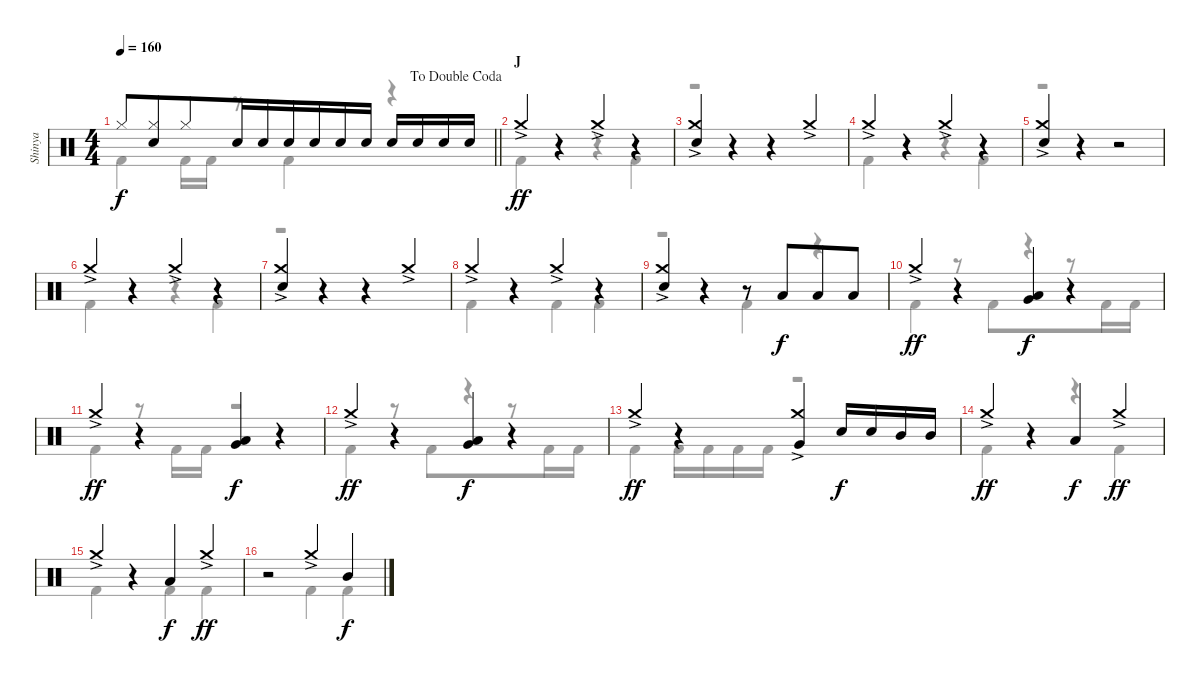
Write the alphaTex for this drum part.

\track ("Shinya" "Shinya") {instrument percussion}
\staff {score}
\articulation defaults
\voice
\ts (4 4)
\jump dadoublecoda
\tempo 160
\clef neutral
\barLineRight lightlight
\ks c "Hi-Hat (closed)".8{dy f beam merge}
("Hi-Hat (closed)" "Electric Snare (hit)").8{beam merge} "Hi-Hat (closed)".8{beam merge} "Electric Snare (hit)".16{beam merge} "Electric Snare (hit)".16{beam merge} "Electric Snare (hit)".16 "Electric Snare (hit)".16{beam merge} "Electric Snare (hit)".16 "Electric Snare (hit)".16 "Electric Snare (hit)".16 "Electric Snare (hit)".16 "Electric Snare (hit)".16 "Electric Snare (hit)".16 |
\section ("" "J")
"Crash medium (hit)"{ac}.4{dy ff beam merge} r.4{beam merge} "Crash medium (hit)"{ac}.4{beam merge} r.4 |
("Crash medium (hit)"{ac} "Electric Snare (hit)").4{beam merge} r.4{beam merge} r.4{beam merge} "Crash medium (hit)"{ac}.4 |
"Crash medium (hit)"{ac}.4{beam merge} r.4{beam merge} "Crash medium (hit)"{ac}.4{beam merge} r.4 |
("Crash medium (hit)"{ac} "Electric Snare (hit)").4{beam merge} r.4{beam merge} r.2 |
"Crash medium (hit)"{ac}.4{beam merge} r.4{beam merge} "Crash medium (hit)"{ac}.4{beam merge} r.4 |
("Crash medium (hit)"{ac} "Electric Snare (hit)").4{beam merge} r.4{beam merge} r.4{beam merge} "Crash medium (hit)"{ac}.4 |
"Crash medium (hit)"{ac}.4{beam merge} r.4{beam merge} "Crash medium (hit)"{ac}.4{beam merge} r.4 |
("Crash medium (hit)"{ac} "Electric Snare (hit)").4{beam merge} r.4{beam merge} r.8 "Low Tom (hit)".8{dy f beam merge} "Low Tom (hit)".8 "Low Tom (hit)".8 |
"Crash medium (hit)"{ac}.4{dy ff beam merge} r.4{beam merge} ("Low Tom (hit)" "Very Low Tom (hit)").4{dy f} r.4 |
"Crash medium (hit)"{ac}.4{dy ff beam merge} r.4{beam merge} ("Low Tom (hit)" "Very Low Tom (hit)").4{dy f} r.4 |
"Crash medium (hit)"{ac}.4{dy ff beam merge} r.4{beam merge} ("Low Tom (hit)" "Very Low Tom (hit)").4{dy f} r.4 |
"Crash medium (hit)"{ac}.4{dy ff beam merge} r.4{beam merge} ("Crash medium (hit)"{ac} "Very Low Tom (hit)").4 "Electric Snare (hit)".16{dy f} "Electric Snare (hit)".16{beam merge} "Mid Tom (hit)".16{beam merge} "Mid Tom (hit)".16 |
"Crash medium (hit)"{ac}.4{dy ff beam merge} r.4{beam merge} "Low Tom (hit)".4{dy f beam merge} "Crash medium (hit)"{ac}.4{dy ff} |
"Crash medium (hit)"{ac}.4{beam merge} r.4{beam merge} "Low Tom (hit)".4{dy f beam merge} "Crash medium (hit)"{ac}.4{dy ff} |
r.2{beam merge} "Crash medium (hit)"{ac}.4{beam merge} "Mid Tom (hit)".4{dy f}
\voice
\clef neutral
\ottava regular
\simile none
\barLineRight lightlight
\ks c "Kick (hit) 2".4{dy f beam merge} "Kick (hit) 2".16{beam merge} "Kick (hit) 2".16{beam merge}
r.8{beam merge} "Kick (hit) 2".4 r.4 |
"Kick (hit) 2".4{beam merge} r.4{beam merge} r.4{beam merge} "Kick (hit) 2".4 |
r.1 |
"Kick (hit) 2".4{beam merge} r.4{beam merge} r.4{beam merge} "Kick (hit) 2".4 |
r.1 |
"Kick (hit) 2".4{beam merge} r.4{beam merge} r.4{beam merge} "Kick (hit) 2".4 |
r.1 |
"Kick (hit) 2".4{beam merge} r.4{beam merge} "Kick (hit) 2".4{beam merge} "Kick (hit) 2".4 |
r.2{beam merge} "Kick (hit) 2".4{beam merge} r.4 |
"Kick (hit) 2".4{beam merge} r.8{beam merge} "Kick (hit) 2".8{beam merge} r.4{beam merge} r.8 "Kick (hit) 2".16{beam merge} "Kick (hit) 2".16 |
"Kick (hit) 2".4{beam merge} r.8{beam merge} "Kick (hit) 2".16{beam merge} "Kick (hit) 2".16{beam merge} r.2 |
"Kick (hit) 2".4{beam merge} r.8{beam merge} "Kick (hit) 2".8{beam merge} r.4{beam merge} r.8 "Kick (hit) 2".16{beam merge} "Kick (hit) 2".16 |
"Kick (hit) 2".4 "Kick (hit) 2".16{beam merge} "Kick (hit) 2".16{beam merge} "Kick (hit) 2".16{beam merge} "Kick (hit) 2".16{beam merge} r.2 |
"Kick (hit) 2".4{beam merge} r.4{beam merge} r.4{beam merge} "Kick (hit) 2".4 |
"Kick (hit) 2".4{beam merge} r.4{beam merge} "Kick (hit) 2".4{beam merge} "Kick (hit) 2".4 |
r.2{beam merge} "Kick (hit) 2".4{beam merge} "Kick (hit) 2".4
